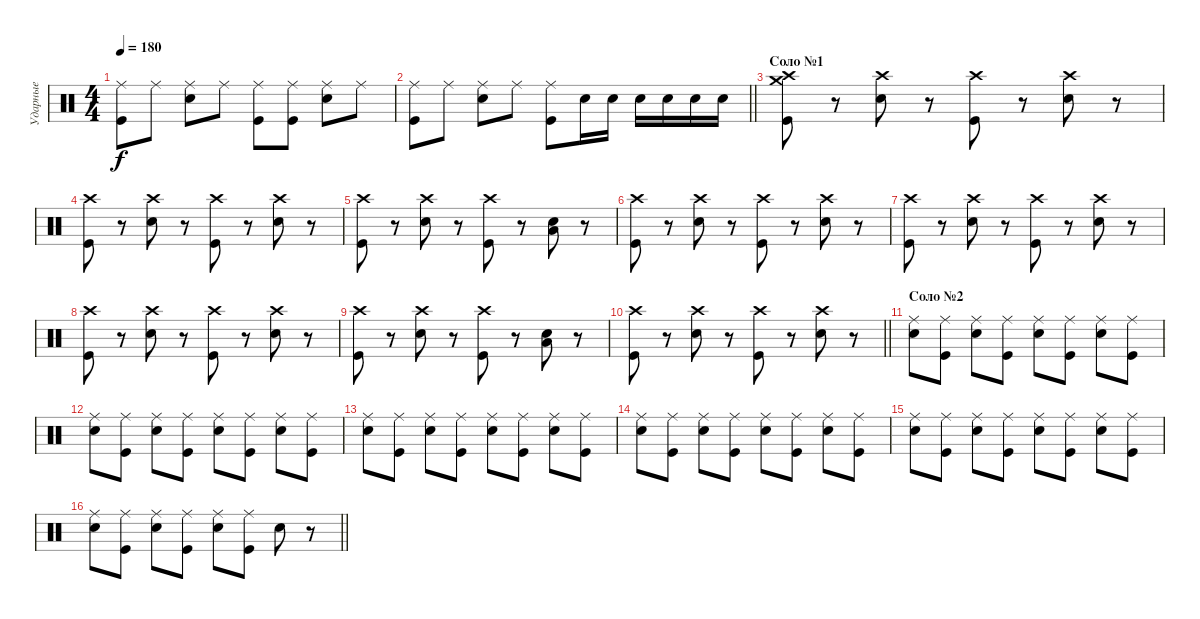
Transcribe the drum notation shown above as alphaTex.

\track ("Ударные" "Ударные") {instrument percussion}
\staff {score}
\articulation defaults
\ts (4 4)
\tempo 180
\clef neutral
\ks c
("Ride (middle)" "Kick (hit)").8{dy f} "Ride (middle)".8 ("Ride (middle)" "Electric Snare (hit)").8 "Ride (middle)".8 ("Ride (middle)" "Kick (hit)").8 ("Ride (middle)" "Kick (hit)").8 ("Ride (middle)" "Electric Snare (hit)").8 "Ride (middle)".8 |
\barLineRight lightlight
("Ride (middle)" "Kick (hit)").8 "Ride (middle)".8 ("Ride (middle)" "Electric Snare (hit)").8 "Ride (middle)".8 ("Ride (middle)" "Kick (hit)").8 "Electric Snare (hit)".16 "Electric Snare (hit)".16 "Electric Snare (hit)".16 "Electric Snare (hit)".16 "Electric Snare (hit)".16 "Electric Snare (hit)".16 |
\section ("" "Соло №1")
("Crash high (hit)" "Kick (hit)" "Crash medium (hit)").8 r.8 ("Crash high (hit)" "Electric Snare (hit)").8 r.8 ("Crash high (hit)" "Kick (hit)").8 r.8 ("Crash high (hit)" "Electric Snare (hit)").8 r.8 |
("Crash high (hit)" "Kick (hit)").8 r.8 ("Crash high (hit)" "Electric Snare (hit)").8 r.8 ("Crash high (hit)" "Kick (hit)").8 r.8 ("Crash high (hit)" "Electric Snare (hit)").8 r.8 |
("Crash high (hit)" "Kick (hit)").8 r.8 ("Crash high (hit)" "Electric Snare (hit)").8 r.8 ("Crash high (hit)" "Kick (hit)").8 r.8 ("Electric Snare (hit)" "Low Tom (hit)").8 r.8 |
("Crash high (hit)" "Kick (hit)").8 r.8 ("Crash high (hit)" "Electric Snare (hit)").8 r.8 ("Crash high (hit)" "Kick (hit)").8 r.8 ("Crash high (hit)" "Electric Snare (hit)").8 r.8 |
("Crash high (hit)" "Kick (hit)").8 r.8 ("Crash high (hit)" "Electric Snare (hit)").8 r.8 ("Crash high (hit)" "Kick (hit)").8 r.8 ("Crash high (hit)" "Electric Snare (hit)").8 r.8 |
("Crash high (hit)" "Kick (hit)").8 r.8 ("Crash high (hit)" "Electric Snare (hit)").8 r.8 ("Crash high (hit)" "Kick (hit)").8 r.8 ("Crash high (hit)" "Electric Snare (hit)").8 r.8 |
("Crash high (hit)" "Kick (hit)").8 r.8 ("Crash high (hit)" "Electric Snare (hit)").8 r.8 ("Crash high (hit)" "Kick (hit)").8 r.8 ("Low Tom (hit)" "Electric Snare (hit)").8 r.8 |
\barLineRight lightlight
("Crash high (hit)" "Kick (hit)").8 r.8 ("Crash high (hit)" "Electric Snare (hit)").8 r.8 ("Crash high (hit)" "Kick (hit)").8 r.8 ("Crash high (hit)" "Electric Snare (hit)").8 r.8 |
\section ("" "Соло №2")
("Electric Snare (hit)" "Ride (middle)").8 ("Kick (hit)" "Ride (middle)").8 ("Electric Snare (hit)" "Ride (middle)").8 ("Kick (hit)" "Ride (middle)").8 ("Electric Snare (hit)" "Ride (middle)").8 ("Kick (hit)" "Ride (middle)").8 ("Electric Snare (hit)" "Ride (middle)").8 ("Kick (hit)" "Ride (middle)").8 |
("Electric Snare (hit)" "Ride (middle)").8 ("Kick (hit)" "Ride (middle)").8 ("Electric Snare (hit)" "Ride (middle)").8 ("Kick (hit)" "Ride (middle)").8 ("Electric Snare (hit)" "Ride (middle)").8 ("Kick (hit)" "Ride (middle)").8 ("Electric Snare (hit)" "Ride (middle)").8 ("Kick (hit)" "Ride (middle)").8 |
("Electric Snare (hit)" "Ride (middle)").8 ("Kick (hit)" "Ride (middle)").8 ("Electric Snare (hit)" "Ride (middle)").8 ("Kick (hit)" "Ride (middle)").8 ("Electric Snare (hit)" "Ride (middle)").8 ("Kick (hit)" "Ride (middle)").8 ("Electric Snare (hit)" "Ride (middle)").8 ("Kick (hit)" "Ride (middle)").8 |
("Electric Snare (hit)" "Ride (middle)").8 ("Kick (hit)" "Ride (middle)").8 ("Electric Snare (hit)" "Ride (middle)").8 ("Kick (hit)" "Ride (middle)").8 ("Electric Snare (hit)" "Ride (middle)").8 ("Kick (hit)" "Ride (middle)").8 ("Electric Snare (hit)" "Ride (middle)").8 ("Kick (hit)" "Ride (middle)").8 |
("Electric Snare (hit)" "Ride (middle)").8 ("Kick (hit)" "Ride (middle)").8 ("Electric Snare (hit)" "Ride (middle)").8 ("Kick (hit)" "Ride (middle)").8 ("Electric Snare (hit)" "Ride (middle)").8 ("Kick (hit)" "Ride (middle)").8 ("Electric Snare (hit)" "Ride (middle)").8 ("Kick (hit)" "Ride (middle)").8 |
\barLineRight lightlight
("Electric Snare (hit)" "Ride (middle)").8 ("Kick (hit)" "Ride (middle)").8 ("Electric Snare (hit)" "Ride (middle)").8 ("Kick (hit)" "Ride (middle)").8 ("Electric Snare (hit)" "Ride (middle)").8 ("Kick (hit)" "Ride (middle)").8 "Electric Snare (hit)".8 r.8
